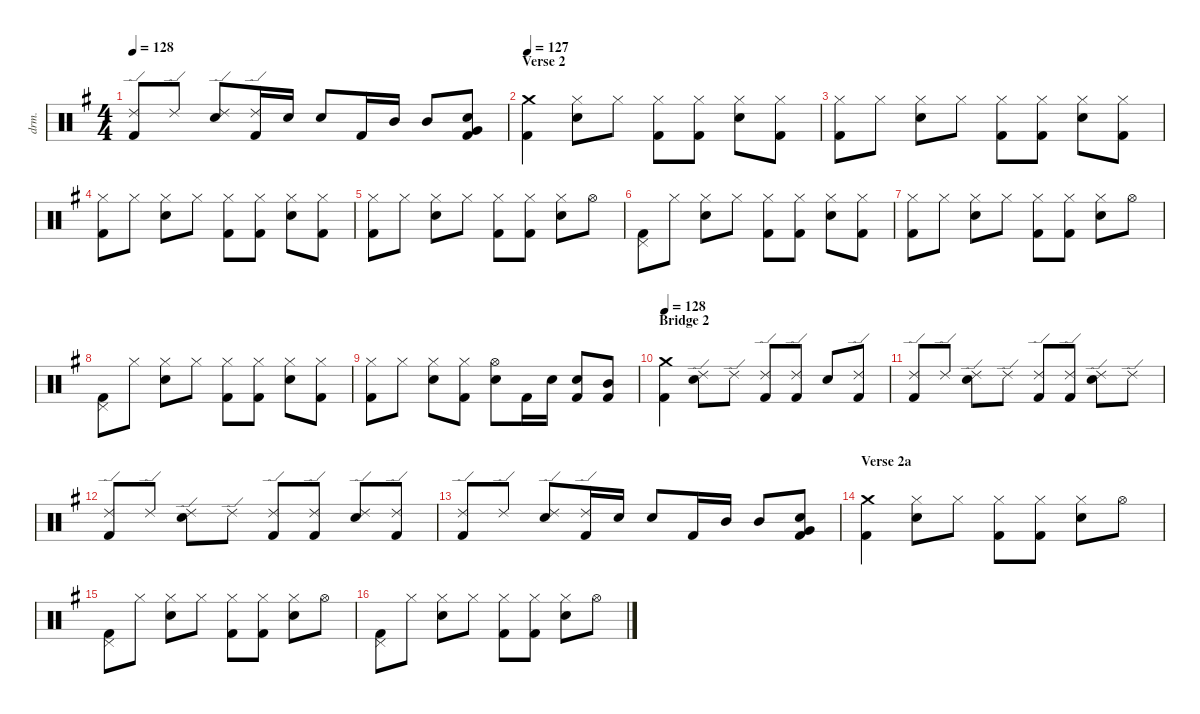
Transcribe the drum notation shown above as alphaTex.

\defaultSystemsLayout 4
\hideDynamics
\bracketExtendMode nobrackets
\otherSystemsTrackNameOrientation horizontal
\track ("Drums" "drm.") {defaultSystemsLayout 4 instrument percussion}
\staff {score}
\articulation defaults
\ts (4 4)
\tempo 128
\clef neutral
\ks eminor
("Ride (edge) 2"{acc forcenatural} "Kick (hit) 2"{acc forcenatural}).8{dy f beam Up} "Ride (edge) 2"{acc forcenatural}.8{dy mf beam Up} ("Ride (edge) 2"{acc forcenatural} "Snare (hit) 2"{acc forcenatural}).8{dy f beam Up} ("Ride (edge) 2"{acc forcenatural} "Kick (hit) 2"{acc forcenatural}).16{beam Up} "Snare (hit) 2"{acc forcenatural}.16{dy ff beam Up} "Snare (hit) 2"{acc forcenatural}.8{dy fff beam Up} "Kick (hit) 2"{acc forcenatural}.16{dy ff beam Up} "Mid Tom (hit)"{acc forcenatural}.16{dy fff beam Up} "Mid Tom (hit)"{acc forcenatural}.8{beam Up} ("Snare (hit) 2"{acc forcenatural} "Very Low Tom (hit)"{acc forcenatural} "Kick (hit) 2"{acc forcenatural}).8{dy f beam Up} |
\section ("" "Verse 2")
\tempo 127
("Crash medium (hit)"{acc forcenatural} "Kick (hit) 2"{acc forcenatural}).4{beam Down} ("Hi-Hat (closed)"{acc forcenatural} "Snare (hit) 2"{acc forcenatural}).8{dy ff beam Down} "Hi-Hat (closed)"{acc forcenatural}.8{dy mf beam Down} ("Hi-Hat (closed)"{acc forcenatural} "Kick (hit) 2"{acc forcenatural}).8{dy f beam Down} ("Hi-Hat (closed)"{acc forcenatural} "Kick (hit) 2"{acc forcenatural}).8{dy mf beam Down} ("Hi-Hat (closed)"{acc forcenatural} "Snare (hit) 2"{acc forcenatural}).8{beam Down} ("Hi-Hat (closed)"{acc forcenatural} "Kick (hit) 2"{acc forcenatural}).8{dy f beam Down} |
("Hi-Hat (closed)"{acc forcenatural} "Kick (hit) 2"{acc forcenatural}).8{dy ff beam Down} "Hi-Hat (closed)"{acc forcenatural}.8{dy mf beam Down} ("Hi-Hat (closed)"{acc forcenatural} "Snare (hit) 2"{acc forcenatural}).8{dy f beam Down} "Hi-Hat (closed)"{acc forcenatural}.8{dy mf beam Down} ("Hi-Hat (closed)"{acc forcenatural} "Kick (hit) 2"{acc forcenatural}).8{beam Down} ("Hi-Hat (closed)"{acc forcenatural} "Kick (hit) 2"{acc forcenatural}).8{beam Down} ("Hi-Hat (closed)"{acc forcenatural} "Snare (hit) 2"{acc forcenatural}).8{dy f beam Down} ("Hi-Hat (closed)"{acc forcenatural} "Kick (hit) 2"{acc forcenatural}).8{dy mf beam Down} |
("Hi-Hat (closed)"{acc forcenatural} "Kick (hit) 2"{acc forcenatural}).8{dy f beam Down} "Hi-Hat (closed)"{acc forcenatural}.8{beam Down} ("Hi-Hat (closed)"{acc forcenatural} "Snare (hit) 2"{acc forcenatural}).8{beam Down} "Hi-Hat (closed)"{acc forcenatural}.8{dy mf beam Down} ("Hi-Hat (closed)"{acc forcenatural} "Kick (hit) 2"{acc forcenatural}).8{dy f beam Down} ("Hi-Hat (closed)"{acc forcenatural} "Kick (hit) 2"{acc forcenatural}).8{dy mf beam Down} ("Hi-Hat (closed)"{acc forcenatural} "Snare (hit) 2"{acc forcenatural}).8{dy f beam Down} ("Hi-Hat (closed)"{acc forcenatural} "Kick (hit) 2"{acc forcenatural}).8{dy mf beam Down} |
("Hi-Hat (closed)"{acc forcenatural} "Kick (hit) 2"{acc forcenatural}).8{dy ff beam Down} "Hi-Hat (closed)"{acc forcenatural}.8{dy mf beam Down} ("Hi-Hat (closed)"{acc forcenatural} "Snare (hit) 2"{acc forcenatural}).8{dy f beam Down} "Hi-Hat (closed)"{acc forcenatural}.8{dy mf beam Down} ("Hi-Hat (closed)"{acc forcenatural} "Kick (hit) 2"{acc forcenatural}).8{beam Down} ("Hi-Hat (closed)"{acc forcenatural} "Kick (hit) 2"{acc forcenatural}).8{beam Down} ("Hi-Hat (closed)"{acc forcenatural} "Snare (hit) 2"{acc forcenatural}).8{dy f beam Down} "Hi-Hat (open)"{acc forcenatural}.8{dy mf beam Down} |
("Pedal Hi-Hat (hit)"{acc forcenatural} "Kick (hit) 2"{acc forcenatural}).8{dy f beam Down} "Hi-Hat (closed)"{acc forcenatural}.8{dy mf beam Down} ("Hi-Hat (closed)"{acc forcenatural} "Snare (hit) 2"{acc forcenatural}).8{dy ff beam Down} "Hi-Hat (closed)"{acc forcenatural}.8{dy mf beam Down} ("Hi-Hat (closed)"{acc forcenatural} "Kick (hit) 2"{acc forcenatural}).8{dy f beam Down} ("Hi-Hat (closed)"{acc forcenatural} "Kick (hit) 2"{acc forcenatural}).8{dy mf beam Down} ("Hi-Hat (closed)"{acc forcenatural} "Snare (hit) 2"{acc forcenatural}).8{beam Down} ("Hi-Hat (closed)"{acc forcenatural} "Kick (hit) 2"{acc forcenatural}).8{dy f beam Down} |
("Hi-Hat (closed)"{acc forcenatural} "Kick (hit) 2"{acc forcenatural}).8{dy ff beam Down} "Hi-Hat (closed)"{acc forcenatural}.8{dy mf beam Down} ("Hi-Hat (closed)"{acc forcenatural} "Snare (hit) 2"{acc forcenatural}).8{dy f beam Down} "Hi-Hat (closed)"{acc forcenatural}.8{dy mf beam Down} ("Hi-Hat (closed)"{acc forcenatural} "Kick (hit) 2"{acc forcenatural}).8{beam Down} ("Hi-Hat (closed)"{acc forcenatural} "Kick (hit) 2"{acc forcenatural}).8{beam Down} ("Hi-Hat (closed)"{acc forcenatural} "Snare (hit) 2"{acc forcenatural}).8{dy f beam Down} "Hi-Hat (open)"{acc forcenatural}.8{dy mf beam Down} |
("Pedal Hi-Hat (hit)"{acc forcenatural} "Kick (hit) 2"{acc forcenatural}).8{dy f beam Down} "Hi-Hat (closed)"{acc forcenatural}.8{beam Down} ("Hi-Hat (closed)"{acc forcenatural} "Snare (hit) 2"{acc forcenatural}).8{beam Down} "Hi-Hat (closed)"{acc forcenatural}.8{dy mf beam Down} ("Hi-Hat (closed)"{acc forcenatural} "Kick (hit) 2"{acc forcenatural}).8{dy f beam Down} ("Hi-Hat (closed)"{acc forcenatural} "Kick (hit) 2"{acc forcenatural}).8{dy mf beam Down} ("Hi-Hat (closed)"{acc forcenatural} "Snare (hit) 2"{acc forcenatural}).8{dy f beam Down} ("Hi-Hat (closed)"{acc forcenatural} "Kick (hit) 2"{acc forcenatural}).8{dy mf beam Down} |
("Hi-Hat (closed)"{acc forcenatural} "Kick (hit) 2"{acc forcenatural}).8{dy ff beam Down} "Hi-Hat (closed)"{acc forcenatural}.8{dy mf beam Down} ("Hi-Hat (closed)"{acc forcenatural} "Snare (hit) 2"{acc forcenatural}).8{dy f beam Down} ("Hi-Hat (closed)"{acc forcenatural} "Kick (hit) 2"{acc forcenatural}).8{dy mf beam Down} ("Hi-Hat (open)"{acc forcenatural} "Snare (hit) 2"{acc forcenatural}).8{dy f beam Down} "Kick (hit) 2"{acc forcenatural}.16{beam Down} "Snare (hit) 2"{acc forcenatural}.16{dy mf beam Down} ("Snare (hit) 2"{acc forcenatural} "Kick (hit) 2"{acc forcenatural}).8{dy ff beam Up} ("Mid Tom (hit)"{acc forcenatural} "Kick (hit) 2"{acc forcenatural}).8{dy fff beam Up} |
\section ("" "Bridge 2")
\tempo 128
("Crash medium (hit)"{acc forcenatural} "Kick (hit) 2"{acc forcenatural}).4{beam Down} ("Ride (edge) 2"{acc forcenatural} "Snare (hit) 2"{acc forcenatural}).8{dy ff beam Down} "Ride (edge) 2"{acc forcenatural}.8{dy mf beam Down} ("Ride (edge) 2"{acc forcenatural} "Kick (hit) 2"{acc forcenatural}).8{dy ff beam Up} ("Ride (edge) 2"{acc forcenatural} "Kick (hit) 2"{acc forcenatural}).8{dy f beam Up} "Snare (hit) 2"{acc forcenatural}.8{beam Up} ("Ride (edge) 2"{acc forcenatural} "Kick (hit) 2"{acc forcenatural}).8{dy mf beam Up} |
("Ride (edge) 2"{acc forcenatural} "Kick (hit) 2"{acc forcenatural}).8{dy ff beam Up} "Ride (edge) 2"{acc forcenatural}.8{dy mf beam Up} ("Ride (edge) 2"{acc forcenatural} "Snare (hit) 2"{acc forcenatural}).8{dy f beam Down} "Ride (edge) 2"{acc forcenatural}.8{dy mf beam Down} ("Ride (edge) 2"{acc forcenatural} "Kick (hit) 2"{acc forcenatural}).8{dy f beam Up} ("Ride (edge) 2"{acc forcenatural} "Kick (hit) 2"{acc forcenatural}).8{dy ff beam Up} ("Ride (edge) 2"{acc forcenatural} "Snare (hit) 2"{acc forcenatural}).8{dy mf beam Down} "Ride (edge) 2"{acc forcenatural}.8{dy f beam Down} |
("Ride (edge) 2"{acc forcenatural} "Kick (hit) 2"{acc forcenatural}).8{beam Up} "Ride (edge) 2"{acc forcenatural}.8{beam Up} ("Ride (edge) 2"{acc forcenatural} "Snare (hit) 2"{acc forcenatural}).8{dy ff beam Down} "Ride (edge) 2"{acc forcenatural}.8{dy mf beam Down} ("Ride (edge) 2"{acc forcenatural} "Kick (hit) 2"{acc forcenatural}).8{beam Up} ("Ride (edge) 2"{acc forcenatural} "Kick (hit) 2"{acc forcenatural}).8{dy f beam Up} ("Ride (edge) 2"{acc forcenatural} "Snare (hit) 2"{acc forcenatural}).8{dy ff beam Up} ("Ride (edge) 2"{acc forcenatural} "Kick (hit) 2"{acc forcenatural}).8{dy mf beam Up} |
("Ride (edge) 2"{acc forcenatural} "Kick (hit) 2"{acc forcenatural}).8{dy ff beam Up} "Ride (edge) 2"{acc forcenatural}.8{dy mf beam Up} ("Ride (edge) 2"{acc forcenatural} "Snare (hit) 2"{acc forcenatural}).8{dy f beam Up} ("Ride (edge) 2"{acc forcenatural} "Kick (hit) 2"{acc forcenatural}).16{dy mf beam Up} "Snare (hit) 2"{acc forcenatural}.16{dy ff beam Up} "Snare (hit) 2"{acc forcenatural}.8{dy fff beam Up} "Kick (hit) 2"{acc forcenatural}.16{dy f beam Up} "Mid Tom (hit)"{acc forcenatural}.16{dy fff beam Up} "Mid Tom (hit)"{acc forcenatural}.8{beam Up} ("Snare (hit) 2"{acc forcenatural} "Very Low Tom (hit)"{acc forcenatural} "Kick (hit) 2"{acc forcenatural}).8{dy f beam Up} |
\section ("" "Verse 2a")
("Crash medium (hit)"{acc forcenatural} "Kick (hit) 2"{acc forcenatural}).4{dy ff beam Down} ("Hi-Hat (closed)"{acc forcenatural} "Snare (hit) 2"{acc forcenatural}).8{beam Down} "Hi-Hat (closed)"{acc forcenatural}.8{dy mf beam Down} ("Hi-Hat (closed)"{acc forcenatural} "Kick (hit) 2"{acc forcenatural}).8{dy f beam Down} ("Hi-Hat (closed)"{acc forcenatural} "Kick (hit) 2"{acc forcenatural}).8{dy mf beam Down} ("Hi-Hat (closed)"{acc forcenatural} "Snare (hit) 2"{acc forcenatural}).8{beam Down} "Hi-Hat (open)"{acc forcenatural}.8{dy f beam Down} |
("Pedal Hi-Hat (hit)"{acc forcenatural} "Kick (hit) 2"{acc forcenatural}).8{beam Down} "Hi-Hat (closed)"{acc forcenatural}.8{dy mf beam Down} ("Hi-Hat (closed)"{acc forcenatural} "Snare (hit) 2"{acc forcenatural}).8{dy f beam Down} "Hi-Hat (closed)"{acc forcenatural}.8{dy mf beam Down} ("Hi-Hat (closed)"{acc forcenatural} "Kick (hit) 2"{acc forcenatural}).8{beam Down} ("Hi-Hat (closed)"{acc forcenatural} "Kick (hit) 2"{acc forcenatural}).8{beam Down} ("Hi-Hat (closed)"{acc forcenatural} "Snare (hit) 2"{acc forcenatural}).8{dy f beam Down} "Hi-Hat (open)"{acc forcenatural}.8{dy mf beam Down} |
("Pedal Hi-Hat (hit)"{acc forcenatural} "Kick (hit) 2"{acc forcenatural}).8{dy f beam Down} "Hi-Hat (closed)"{acc forcenatural}.8{beam Down} ("Hi-Hat (closed)"{acc forcenatural} "Snare (hit) 2"{acc forcenatural}).8{beam Down} "Hi-Hat (closed)"{acc forcenatural}.8{dy mf beam Down} ("Hi-Hat (closed)"{acc forcenatural} "Kick (hit) 2"{acc forcenatural}).8{dy f beam Down} ("Hi-Hat (closed)"{acc forcenatural} "Kick (hit) 2"{acc forcenatural}).8{dy mf beam Down} ("Hi-Hat (closed)"{acc forcenatural} "Snare (hit) 2"{acc forcenatural}).8{dy f beam Down} "Hi-Hat (open)"{acc forcenatural}.8{dy mf beam Down}
